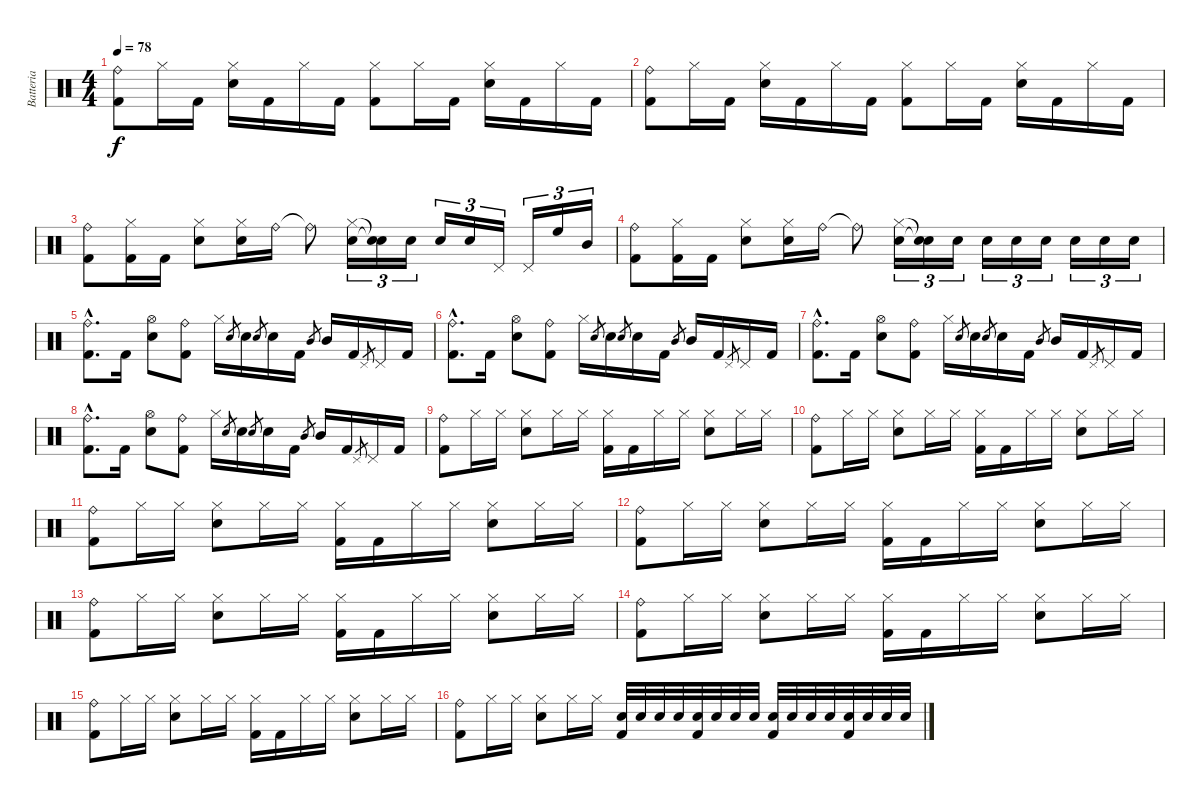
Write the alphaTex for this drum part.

\track ("Batteria" "Batteria") {instrument percussion}
\staff {score}
\articulation defaults
\ts (4 4)
\tempo 78
\clef neutral
\ks c
("Ride (bell)" "Kick (hit) 2").8{dy f} "Hi-Hat (closed)".16 "Kick (hit) 2".16 ("Hi-Hat (closed)" "Snare (hit) 2").16 "Kick (hit) 2".16 "Hi-Hat (closed)".16 "Kick (hit) 2".16 ("Hi-Hat (closed)" "Kick (hit) 2").8 "Hi-Hat (closed)".16 "Kick (hit) 2".16 ("Hi-Hat (closed)" "Snare (hit) 2").16 "Kick (hit) 2".16 "Hi-Hat (closed)".16 "Kick (hit) 2".16 |
("Ride (bell)" "Kick (hit) 2").8 "Hi-Hat (closed)".16 "Kick (hit) 2".16 ("Hi-Hat (closed)" "Snare (hit) 2").16 "Kick (hit) 2".16 "Hi-Hat (closed)".16 "Kick (hit) 2".16 ("Hi-Hat (closed)" "Kick (hit) 2").8 "Hi-Hat (closed)".16 "Kick (hit) 2".16 ("Hi-Hat (closed)" "Snare (hit) 2").16 "Kick (hit) 2".16 "Hi-Hat (closed)".16 "Kick (hit) 2".16 |
("Ride (bell)" "Kick (hit) 2").8 ("Hi-Hat (closed)" "Kick (hit) 2").16 "Kick (hit) 2".16 ("Hi-Hat (closed)" "Snare (hit) 2").8 ("Hi-Hat (closed)" "Snare (hit) 2").16 "Ride (bell)".16 "Ride (bell)"{t}.8 ("Hi-Hat (closed)" "Snare (hit) 2").16{tu (3 2)} ("Snare (hit)"{t} "Snare (hit)"{t}).16{tu (3 2)} "Snare (hit) 2".16{tu (3 2)} "Snare (hit) 2".16{tu (3 2)} "Snare (hit) 2".16{tu (3 2)} "Pedal Hi-Hat (hit)".16{tu (3 2)} "Pedal Hi-Hat (hit)".16{tu (3 2)} "High Floor Tom (hit)".16{tu (3 2)} "Mid Tom (hit)".16{tu (3 2)} |
("Ride (bell)" "Kick (hit) 2").8 ("Hi-Hat (closed)" "Kick (hit) 2").16 "Kick (hit) 2".16 ("Hi-Hat (closed)" "Snare (hit) 2").8 ("Hi-Hat (closed)" "Snare (hit) 2").16 "Ride (bell)".16 "Ride (bell)"{t}.8 ("Hi-Hat (closed)" "Snare (hit) 2").16{tu (3 2)} ("Snare (hit)"{t} "Snare (hit)"{t}).16{tu (3 2)} "Snare (hit) 2".16{tu (3 2)} "Snare (hit) 2".16{tu (3 2)} "Snare (hit) 2".16{tu (3 2)} "Snare (hit) 2".16{tu (3 2)} "Snare (hit) 2".16{tu (3 2)} "Snare (hit) 2".16{tu (3 2)} "Snare (hit) 2".16{tu (3 2)} |
("Ride (bell)"{hac} "Kick (hit) 2"{hac}).8{d} "Kick (hit) 2".16 ("Hi-Hat (open)" "Snare (hit) 2").8 ("Ride (bell)" "Kick (hit) 2").8 "Hi-Hat (closed)".16 "Snare (hit) 2".8{gr} "Snare (hit) 2".16 "Snare (hit) 2".8{gr} "Snare (hit) 2".16 "Kick (hit) 2".16 "Mid Tom (hit)".8{gr} "Mid Tom (hit)".16 "Kick (hit) 2".16 "Pedal Hi-Hat (hit)".8{gr} "Pedal Hi-Hat (hit)".16 "Kick (hit) 2".16 |
("Ride (bell)"{hac} "Kick (hit) 2"{hac}).8{d} "Kick (hit) 2".16 ("Hi-Hat (open)" "Snare (hit) 2").8 ("Ride (bell)" "Kick (hit) 2").8 "Hi-Hat (closed)".16 "Snare (hit) 2".8{gr} "Snare (hit) 2".16 "Snare (hit) 2".8{gr} "Snare (hit) 2".16 "Kick (hit) 2".16 "Mid Tom (hit)".8{gr} "Mid Tom (hit)".16 "Kick (hit) 2".16 "Pedal Hi-Hat (hit)".8{gr} "Pedal Hi-Hat (hit)".16 "Kick (hit) 2".16 |
("Ride (bell)"{hac} "Kick (hit) 2"{hac}).8{d} "Kick (hit) 2".16 ("Hi-Hat (open)" "Snare (hit) 2").8 ("Ride (bell)" "Kick (hit) 2").8 "Hi-Hat (closed)".16 "Snare (hit) 2".8{gr} "Snare (hit) 2".16 "Snare (hit) 2".8{gr} "Snare (hit) 2".16 "Kick (hit) 2".16 "Mid Tom (hit)".8{gr} "Mid Tom (hit)".16 "Kick (hit) 2".16 "Pedal Hi-Hat (hit)".8{gr} "Pedal Hi-Hat (hit)".16 "Kick (hit) 2".16 |
("Ride (bell)"{hac} "Kick (hit) 2"{hac}).8{d} "Kick (hit) 2".16 ("Hi-Hat (open)" "Snare (hit) 2").8 ("Ride (bell)" "Kick (hit) 2").8 "Hi-Hat (closed)".16 "Snare (hit) 2".8{gr} "Snare (hit) 2".16 "Snare (hit) 2".8{gr} "Snare (hit) 2".16 "Kick (hit) 2".16 "Mid Tom (hit)".8{gr} "Mid Tom (hit)".16 "Kick (hit) 2".16 "Pedal Hi-Hat (hit)".8{gr} "Pedal Hi-Hat (hit)".16 "Kick (hit) 2".16 |
("Ride (bell)" "Kick (hit) 2").8 "Hi-Hat (closed)".16 "Hi-Hat (closed)".16 ("Hi-Hat (closed)" "Snare (hit) 2").8 "Hi-Hat (closed)".16 "Hi-Hat (closed)".16 ("Hi-Hat (closed)" "Kick (hit) 2").16 "Kick (hit) 2".16 "Hi-Hat (closed)".16 "Hi-Hat (closed)".16 ("Hi-Hat (closed)" "Snare (hit) 2").8 "Hi-Hat (closed)".16 "Hi-Hat (closed)".16 |
("Ride (bell)" "Kick (hit) 2").8 "Hi-Hat (closed)".16 "Hi-Hat (closed)".16 ("Hi-Hat (closed)" "Snare (hit) 2").8 "Hi-Hat (closed)".16 "Hi-Hat (closed)".16 ("Hi-Hat (closed)" "Kick (hit) 2").16 "Kick (hit) 2".16 "Hi-Hat (closed)".16 "Hi-Hat (closed)".16 ("Hi-Hat (closed)" "Snare (hit) 2").8 "Hi-Hat (closed)".16 "Hi-Hat (closed)".16 |
("Ride (bell)" "Kick (hit) 2").8 "Hi-Hat (closed)".16 "Hi-Hat (closed)".16 ("Hi-Hat (closed)" "Snare (hit) 2").8 "Hi-Hat (closed)".16 "Hi-Hat (closed)".16 ("Hi-Hat (closed)" "Kick (hit) 2").16 "Kick (hit) 2".16 "Hi-Hat (closed)".16 "Hi-Hat (closed)".16 ("Hi-Hat (closed)" "Snare (hit) 2").8 "Hi-Hat (closed)".16 "Hi-Hat (closed)".16 |
("Ride (bell)" "Kick (hit) 2").8 "Hi-Hat (closed)".16 "Hi-Hat (closed)".16 ("Hi-Hat (closed)" "Snare (hit) 2").8 "Hi-Hat (closed)".16 "Hi-Hat (closed)".16 ("Hi-Hat (closed)" "Kick (hit) 2").16 "Kick (hit) 2".16 "Hi-Hat (closed)".16 "Hi-Hat (closed)".16 ("Hi-Hat (closed)" "Snare (hit) 2").8 "Hi-Hat (closed)".16 "Hi-Hat (closed)".16 |
("Ride (bell)" "Kick (hit) 2").8 "Hi-Hat (closed)".16 "Hi-Hat (closed)".16 ("Hi-Hat (closed)" "Snare (hit) 2").8 "Hi-Hat (closed)".16 "Hi-Hat (closed)".16 ("Hi-Hat (closed)" "Kick (hit) 2").16 "Kick (hit) 2".16 "Hi-Hat (closed)".16 "Hi-Hat (closed)".16 ("Hi-Hat (closed)" "Snare (hit) 2").8 "Hi-Hat (closed)".16 "Hi-Hat (closed)".16 |
("Ride (bell)" "Kick (hit) 2").8 "Hi-Hat (closed)".16 "Hi-Hat (closed)".16 ("Hi-Hat (closed)" "Snare (hit) 2").8 "Hi-Hat (closed)".16 "Hi-Hat (closed)".16 ("Hi-Hat (closed)" "Kick (hit) 2").16 "Kick (hit) 2".16 "Hi-Hat (closed)".16 "Hi-Hat (closed)".16 ("Hi-Hat (closed)" "Snare (hit) 2").8 "Hi-Hat (closed)".16 "Hi-Hat (closed)".16 |
("Ride (bell)" "Kick (hit) 2").8 "Hi-Hat (closed)".16 "Hi-Hat (closed)".16 ("Hi-Hat (closed)" "Snare (hit) 2").8 "Hi-Hat (closed)".16 "Hi-Hat (closed)".16 ("Hi-Hat (closed)" "Kick (hit) 2").16 "Kick (hit) 2".16 "Hi-Hat (closed)".16 "Hi-Hat (closed)".16 ("Hi-Hat (closed)" "Snare (hit) 2").8 "Hi-Hat (closed)".16 "Hi-Hat (closed)".16 |
("Ride (bell)" "Kick (hit) 2").8 "Hi-Hat (closed)".16 "Hi-Hat (closed)".16 ("Hi-Hat (closed)" "Snare (hit) 2").8 "Hi-Hat (closed)".16 "Hi-Hat (closed)".16 ("Snare (hit) 2" "Kick (hit) 2").32 "Snare (hit) 2".32 "Snare (hit) 2".32 "Snare (hit) 2".32 ("Snare (hit) 2" "Kick (hit) 2").32 "Snare (hit) 2".32 "Snare (hit) 2".32 "Snare (hit) 2".32 ("Snare (hit) 2" "Kick (hit) 2").32 "Snare (hit) 2".32 "Snare (hit) 2".32 "Snare (hit) 2".32 ("Snare (hit) 2" "Kick (hit) 2").32 "Snare (hit) 2".32 "Snare (hit) 2".32 "Snare (hit) 2".32
